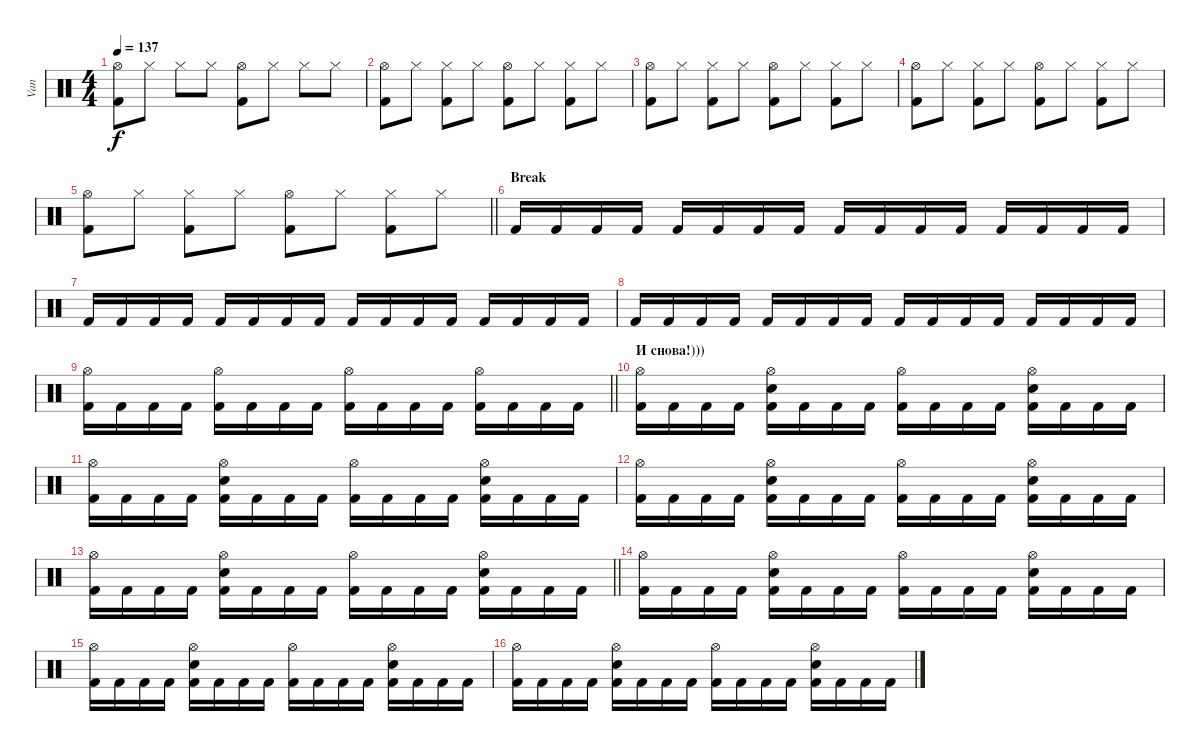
\track ("Van" "Van") {instrument percussion}
\staff {score}
\articulation defaults
\ts (4 4)
\tempo 137
\clef neutral
\ks c
("Hi-Hat (open)" "Kick (hit) 2").8{dy f} "Hi-Hat (closed)".8 "Hi-Hat (closed)".8 "Hi-Hat (closed)".8 ("Hi-Hat (open)" "Kick (hit) 2").8 "Hi-Hat (closed)".8 "Hi-Hat (closed)".8 "Hi-Hat (closed)".8 |
("Hi-Hat (open)" "Kick (hit) 2").8 "Hi-Hat (closed)".8 ("Hi-Hat (closed)" "Kick (hit) 2").8 "Hi-Hat (closed)".8 ("Hi-Hat (open)" "Kick (hit) 2").8 "Hi-Hat (closed)".8 ("Hi-Hat (closed)" "Kick (hit) 2").8 "Hi-Hat (closed)".8 |
("Hi-Hat (open)" "Kick (hit) 2").8 "Hi-Hat (closed)".8 ("Hi-Hat (closed)" "Kick (hit) 2").8 "Hi-Hat (closed)".8 ("Hi-Hat (open)" "Kick (hit) 2").8 "Hi-Hat (closed)".8 ("Hi-Hat (closed)" "Kick (hit) 2").8 "Hi-Hat (closed)".8 |
("Hi-Hat (open)" "Kick (hit) 2").8 "Hi-Hat (closed)".8 ("Hi-Hat (closed)" "Kick (hit) 2").8 "Hi-Hat (closed)".8 ("Hi-Hat (open)" "Kick (hit) 2").8 "Hi-Hat (closed)".8 ("Hi-Hat (closed)" "Kick (hit) 2").8 "Hi-Hat (closed)".8 |
\barLineRight lightlight
("Hi-Hat (open)" "Kick (hit) 2").8 "Hi-Hat (closed)".8 ("Hi-Hat (closed)" "Kick (hit) 2").8 "Hi-Hat (closed)".8 ("Hi-Hat (open)" "Kick (hit) 2").8 "Hi-Hat (closed)".8 ("Hi-Hat (closed)" "Kick (hit) 2").8 "Hi-Hat (closed)".8 |
\section ("" "Break")
"Kick (hit) 2".16 "Kick (hit) 2".16 "Kick (hit) 2".16 "Kick (hit) 2".16 "Kick (hit) 2".16 "Kick (hit) 2".16 "Kick (hit) 2".16 "Kick (hit) 2".16 "Kick (hit) 2".16 "Kick (hit) 2".16 "Kick (hit) 2".16 "Kick (hit) 2".16 "Kick (hit) 2".16 "Kick (hit) 2".16 "Kick (hit) 2".16 "Kick (hit) 2".16 |
"Kick (hit) 2".16 "Kick (hit) 2".16 "Kick (hit) 2".16 "Kick (hit) 2".16 "Kick (hit) 2".16 "Kick (hit) 2".16 "Kick (hit) 2".16 "Kick (hit) 2".16 "Kick (hit) 2".16 "Kick (hit) 2".16 "Kick (hit) 2".16 "Kick (hit) 2".16 "Kick (hit) 2".16 "Kick (hit) 2".16 "Kick (hit) 2".16 "Kick (hit) 2".16 |
"Kick (hit) 2".16 "Kick (hit) 2".16 "Kick (hit) 2".16 "Kick (hit) 2".16 "Kick (hit) 2".16 "Kick (hit) 2".16 "Kick (hit) 2".16 "Kick (hit) 2".16 "Kick (hit) 2".16 "Kick (hit) 2".16 "Kick (hit) 2".16 "Kick (hit) 2".16 "Kick (hit) 2".16 "Kick (hit) 2".16 "Kick (hit) 2".16 "Kick (hit) 2".16 |
\barLineRight lightlight
("Kick (hit) 2" "Hi-Hat (open)").16 "Kick (hit) 2".16 "Kick (hit) 2".16 "Kick (hit) 2".16 ("Kick (hit) 2" "Hi-Hat (open)").16 "Kick (hit) 2".16 "Kick (hit) 2".16 "Kick (hit) 2".16 ("Kick (hit) 2" "Hi-Hat (open)").16 "Kick (hit) 2".16 "Kick (hit) 2".16 "Kick (hit) 2".16 ("Kick (hit) 2" "Hi-Hat (open)").16 "Kick (hit) 2".16 "Kick (hit) 2".16 "Kick (hit) 2".16 |
\section ("" "И снова!)))")
("Hi-Hat (open)" "Kick (hit) 2").16 "Kick (hit) 2".16 "Kick (hit) 2".16 "Kick (hit) 2".16 ("Hi-Hat (open)" "Electric Snare (hit)" "Kick (hit) 2").16 "Kick (hit) 2".16 "Kick (hit) 2".16 "Kick (hit) 2".16 ("Hi-Hat (open)" "Kick (hit) 2").16 "Kick (hit) 2".16 "Kick (hit) 2".16 "Kick (hit) 2".16 ("Hi-Hat (open)" "Electric Snare (hit)" "Kick (hit) 2").16 "Kick (hit) 2".16 "Kick (hit) 2".16 "Kick (hit) 2".16 |
("Hi-Hat (open)" "Kick (hit) 2").16 "Kick (hit) 2".16 "Kick (hit) 2".16 "Kick (hit) 2".16 ("Hi-Hat (open)" "Electric Snare (hit)" "Kick (hit) 2").16 "Kick (hit) 2".16 "Kick (hit) 2".16 "Kick (hit) 2".16 ("Hi-Hat (open)" "Kick (hit) 2").16 "Kick (hit) 2".16 "Kick (hit) 2".16 "Kick (hit) 2".16 ("Hi-Hat (open)" "Electric Snare (hit)" "Kick (hit) 2").16 "Kick (hit) 2".16 "Kick (hit) 2".16 "Kick (hit) 2".16 |
("Hi-Hat (open)" "Kick (hit) 2").16 "Kick (hit) 2".16 "Kick (hit) 2".16 "Kick (hit) 2".16 ("Hi-Hat (open)" "Electric Snare (hit)" "Kick (hit) 2").16 "Kick (hit) 2".16 "Kick (hit) 2".16 "Kick (hit) 2".16 ("Hi-Hat (open)" "Kick (hit) 2").16 "Kick (hit) 2".16 "Kick (hit) 2".16 "Kick (hit) 2".16 ("Hi-Hat (open)" "Electric Snare (hit)" "Kick (hit) 2").16 "Kick (hit) 2".16 "Kick (hit) 2".16 "Kick (hit) 2".16 |
\barLineRight lightlight
("Hi-Hat (open)" "Kick (hit) 2").16 "Kick (hit) 2".16 "Kick (hit) 2".16 "Kick (hit) 2".16 ("Hi-Hat (open)" "Electric Snare (hit)" "Kick (hit) 2").16 "Kick (hit) 2".16 "Kick (hit) 2".16 "Kick (hit) 2".16 ("Hi-Hat (open)" "Kick (hit) 2").16 "Kick (hit) 2".16 "Kick (hit) 2".16 "Kick (hit) 2".16 ("Hi-Hat (open)" "Electric Snare (hit)" "Kick (hit) 2").16 "Kick (hit) 2".16 "Kick (hit) 2".16 "Kick (hit) 2".16 |
("Hi-Hat (open)" "Kick (hit) 2").16 "Kick (hit) 2".16 "Kick (hit) 2".16 "Kick (hit) 2".16 ("Hi-Hat (open)" "Electric Snare (hit)" "Kick (hit) 2").16 "Kick (hit) 2".16 "Kick (hit) 2".16 "Kick (hit) 2".16 ("Hi-Hat (open)" "Kick (hit) 2").16 "Kick (hit) 2".16 "Kick (hit) 2".16 "Kick (hit) 2".16 ("Hi-Hat (open)" "Electric Snare (hit)" "Kick (hit) 2").16 "Kick (hit) 2".16 "Kick (hit) 2".16 "Kick (hit) 2".16 |
("Hi-Hat (open)" "Kick (hit) 2").16 "Kick (hit) 2".16 "Kick (hit) 2".16 "Kick (hit) 2".16 ("Hi-Hat (open)" "Electric Snare (hit)" "Kick (hit) 2").16 "Kick (hit) 2".16 "Kick (hit) 2".16 "Kick (hit) 2".16 ("Hi-Hat (open)" "Kick (hit) 2").16 "Kick (hit) 2".16 "Kick (hit) 2".16 "Kick (hit) 2".16 ("Hi-Hat (open)" "Electric Snare (hit)" "Kick (hit) 2").16 "Kick (hit) 2".16 "Kick (hit) 2".16 "Kick (hit) 2".16 |
("Hi-Hat (open)" "Kick (hit) 2").16 "Kick (hit) 2".16 "Kick (hit) 2".16 "Kick (hit) 2".16 ("Hi-Hat (open)" "Electric Snare (hit)" "Kick (hit) 2").16 "Kick (hit) 2".16 "Kick (hit) 2".16 "Kick (hit) 2".16 ("Hi-Hat (open)" "Kick (hit) 2").16 "Kick (hit) 2".16 "Kick (hit) 2".16 "Kick (hit) 2".16 ("Hi-Hat (open)" "Electric Snare (hit)" "Kick (hit) 2").16 "Kick (hit) 2".16 "Kick (hit) 2".16 "Kick (hit) 2".16
